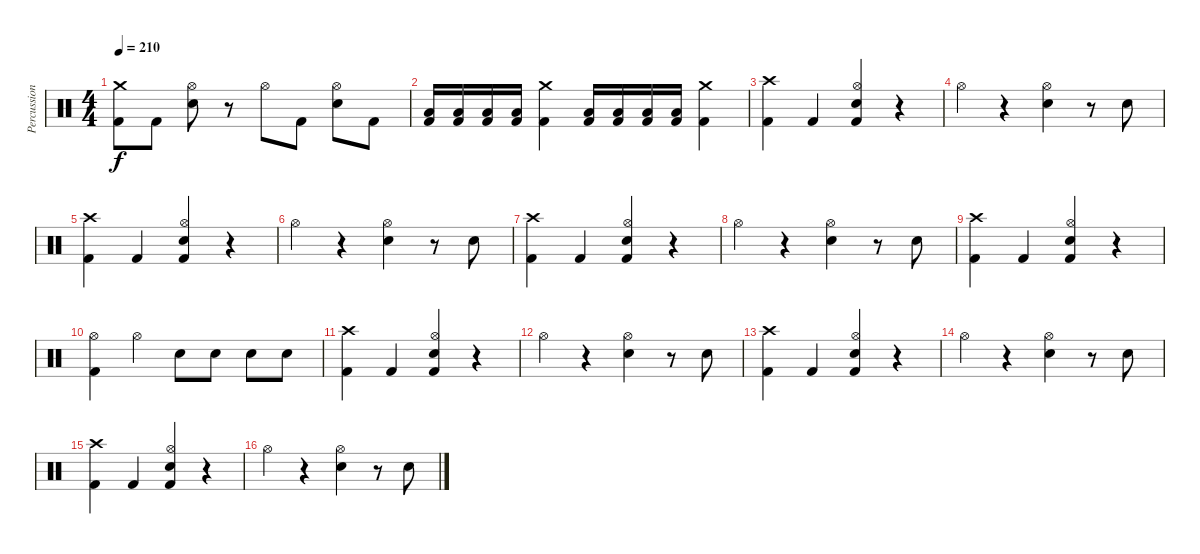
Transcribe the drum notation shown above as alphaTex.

\track ("Percussion" "Percussion") {instrument percussion}
\staff {score}
\articulation defaults
\ts (4 4)
\tempo 210
\clef neutral
\ks c
("Crash medium (hit)" "Kick (hit) 2").8{dy f} "Kick (hit) 2".8 ("Hi-Hat (open)" "Electric Snare (hit)").8 r.8 "Hi-Hat (open)".8 "Kick (hit) 2".8 ("Hi-Hat (open)" "Electric Snare (hit)").8 "Kick (hit) 2".8 |
("Low Tom (hit)" "Kick (hit) 2").16 ("Low Tom (hit)" "Kick (hit) 2").16 ("Low Tom (hit)" "Kick (hit) 2").16 ("Low Tom (hit)" "Kick (hit) 2").16 ("Crash medium (hit)" "Kick (hit) 2").4 ("Low Tom (hit)" "Kick (hit) 2").16 ("Low Tom (hit)" "Kick (hit) 2").16 ("Low Tom (hit)" "Kick (hit) 2").16 ("Low Tom (hit)" "Kick (hit) 2").16 ("Crash medium (hit)" "Kick (hit) 2").4 |
("Crash high (hit)" "Kick (hit) 2").4 "Kick (hit) 2".4 ("Hi-Hat (open)" "Electric Snare (hit)" "Kick (hit) 2").4 r.4 |
"Hi-Hat (open)".4 r.4 ("Hi-Hat (open)" "Electric Snare (hit)").4 r.8 "Electric Snare (hit)".8 |
("Crash high (hit)" "Kick (hit) 2").4 "Kick (hit) 2".4 ("Hi-Hat (open)" "Electric Snare (hit)" "Kick (hit) 2").4 r.4 |
"Hi-Hat (open)".4 r.4 ("Hi-Hat (open)" "Electric Snare (hit)").4 r.8 "Electric Snare (hit)".8 |
("Crash high (hit)" "Kick (hit) 2").4 "Kick (hit) 2".4 ("Hi-Hat (open)" "Electric Snare (hit)" "Kick (hit) 2").4 r.4 |
"Hi-Hat (open)".4 r.4 ("Hi-Hat (open)" "Electric Snare (hit)").4 r.8 "Electric Snare (hit)".8 |
("Crash high (hit)" "Kick (hit) 2").4 "Kick (hit) 2".4 ("Hi-Hat (open)" "Electric Snare (hit)" "Kick (hit) 2").4 r.4 |
("Hi-Hat (open)" "Kick (hit) 2").4 "Hi-Hat (open)".4 "Electric Snare (hit)".8 "Electric Snare (hit)".8 "Electric Snare (hit)".8 "Electric Snare (hit)".8 |
("Crash high (hit)" "Kick (hit) 2").4 "Kick (hit) 2".4 ("Hi-Hat (open)" "Electric Snare (hit)" "Kick (hit) 2").4 r.4 |
"Hi-Hat (open)".4 r.4 ("Hi-Hat (open)" "Electric Snare (hit)").4 r.8 "Electric Snare (hit)".8 |
("Crash high (hit)" "Kick (hit) 2").4 "Kick (hit) 2".4 ("Hi-Hat (open)" "Electric Snare (hit)" "Kick (hit) 2").4 r.4 |
"Hi-Hat (open)".4 r.4 ("Hi-Hat (open)" "Electric Snare (hit)").4 r.8 "Electric Snare (hit)".8 |
("Crash high (hit)" "Kick (hit) 2").4 "Kick (hit) 2".4 ("Hi-Hat (open)" "Electric Snare (hit)" "Kick (hit) 2").4 r.4 |
"Hi-Hat (open)".4 r.4 ("Hi-Hat (open)" "Electric Snare (hit)").4 r.8 "Electric Snare (hit)".8
